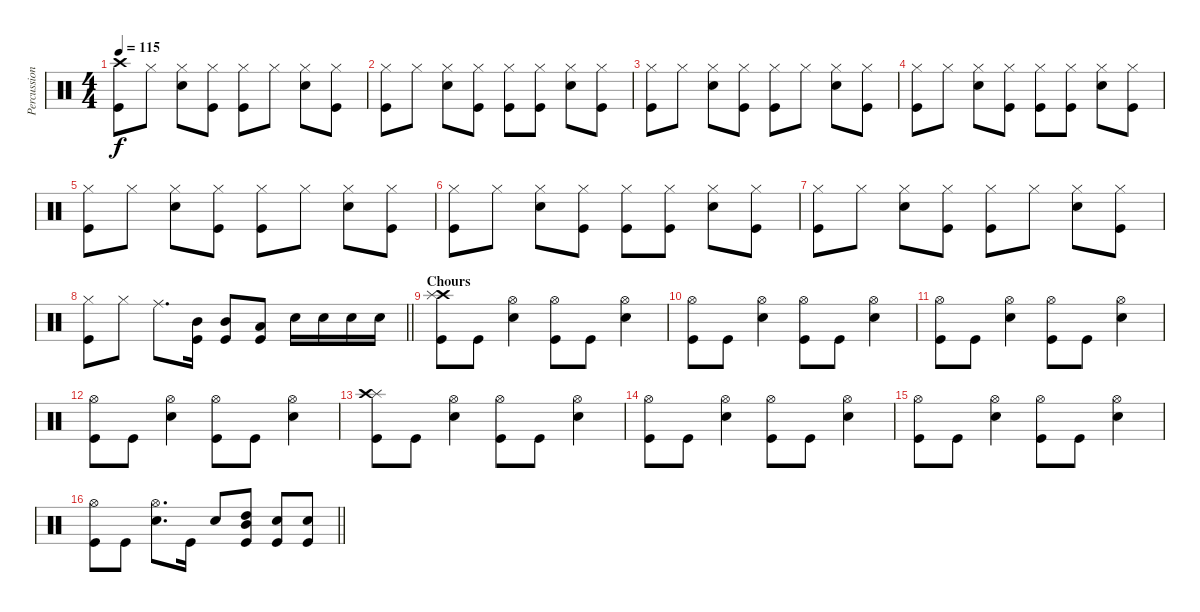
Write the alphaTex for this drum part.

\track ("Percussion" "Percussion") {instrument percussion}
\staff {score}
\articulation defaults
\ts (4 4)
\tempo 115
\clef neutral
\ks c
("Crash high (hit)" "Kick (hit)").8{dy f} "Hi-Hat (closed)".8 ("Hi-Hat (closed)" "Electric Snare (hit)").8 ("Hi-Hat (closed)" "Kick (hit)").8 ("Hi-Hat (closed)" "Kick (hit)").8 "Hi-Hat (closed)".8 ("Hi-Hat (closed)" "Electric Snare (hit)").8 ("Hi-Hat (closed)" "Kick (hit)").8 |
("Hi-Hat (closed)" "Kick (hit)").8 "Hi-Hat (closed)".8 ("Hi-Hat (closed)" "Electric Snare (hit)").8 ("Hi-Hat (closed)" "Kick (hit)").8 ("Hi-Hat (closed)" "Kick (hit)").8 ("Hi-Hat (closed)" "Kick (hit)").8 ("Hi-Hat (closed)" "Electric Snare (hit)").8 ("Hi-Hat (closed)" "Kick (hit)").8 |
("Hi-Hat (closed)" "Kick (hit)").8 "Hi-Hat (closed)".8 ("Hi-Hat (closed)" "Electric Snare (hit)").8 ("Hi-Hat (closed)" "Kick (hit)").8 ("Hi-Hat (closed)" "Kick (hit)").8 "Hi-Hat (closed)".8 ("Hi-Hat (closed)" "Electric Snare (hit)").8 ("Hi-Hat (closed)" "Kick (hit)").8 |
("Hi-Hat (closed)" "Kick (hit)").8 "Hi-Hat (closed)".8 ("Hi-Hat (closed)" "Electric Snare (hit)").8 ("Hi-Hat (closed)" "Kick (hit)").8 ("Hi-Hat (closed)" "Kick (hit)").8 ("Hi-Hat (closed)" "Kick (hit)").8 ("Hi-Hat (closed)" "Electric Snare (hit)").8 ("Hi-Hat (closed)" "Kick (hit)").8 |
("Hi-Hat (closed)" "Kick (hit)").8 "Hi-Hat (closed)".8 ("Hi-Hat (closed)" "Electric Snare (hit)").8 ("Hi-Hat (closed)" "Kick (hit)").8 ("Hi-Hat (closed)" "Kick (hit)").8 "Hi-Hat (closed)".8 ("Hi-Hat (closed)" "Electric Snare (hit)").8 ("Hi-Hat (closed)" "Kick (hit)").8 |
("Hi-Hat (closed)" "Kick (hit)").8 "Hi-Hat (closed)".8 ("Hi-Hat (closed)" "Electric Snare (hit)").8 ("Hi-Hat (closed)" "Kick (hit)").8 ("Hi-Hat (closed)" "Kick (hit)").8 ("Hi-Hat (closed)" "Kick (hit)").8 ("Hi-Hat (closed)" "Electric Snare (hit)").8 ("Hi-Hat (closed)" "Kick (hit)").8 |
("Hi-Hat (closed)" "Kick (hit)").8 "Hi-Hat (closed)".8 ("Hi-Hat (closed)" "Electric Snare (hit)").8 ("Hi-Hat (closed)" "Kick (hit)").8 ("Hi-Hat (closed)" "Kick (hit)").8 "Hi-Hat (closed)".8 ("Hi-Hat (closed)" "Electric Snare (hit)").8 ("Hi-Hat (closed)" "Kick (hit)").8 |
\barLineRight lightlight
("Hi-Hat (closed)" "Kick (hit)").8 "Hi-Hat (closed)".8 "Ride (middle)".8{d} ("Mid Tom (hit)" "Kick (hit)").16 ("Mid Tom (hit)" "Kick (hit)").8 ("Low Tom (hit)" "Kick (hit)").8 "Electric Snare (hit)".16 "Electric Snare (hit)".16 "Electric Snare (hit)".16 "Electric Snare (hit)".16 |
\section ("" "Chours")
("Crash high (hit)" "Splash (hit)" "Kick (hit)").8 "Kick (hit)".8 ("Hi-Hat (open)" "Electric Snare (hit)").4 ("Hi-Hat (open)" "Kick (hit)").8 "Kick (hit)".8 ("Hi-Hat (open)" "Electric Snare (hit)").4 |
("Hi-Hat (open)" "Kick (hit)").8 "Kick (hit)".8 ("Hi-Hat (open)" "Electric Snare (hit)").4 ("Hi-Hat (open)" "Kick (hit)").8 "Kick (hit)".8 ("Hi-Hat (open)" "Electric Snare (hit)").4 |
("Hi-Hat (open)" "Kick (hit)").8 "Kick (hit)".8 ("Hi-Hat (open)" "Electric Snare (hit)").4 ("Hi-Hat (open)" "Kick (hit)").8 "Kick (hit)".8 ("Hi-Hat (open)" "Electric Snare (hit)").4 |
("Hi-Hat (open)" "Kick (hit)").8 "Kick (hit)".8 ("Hi-Hat (open)" "Electric Snare (hit)").4 ("Hi-Hat (open)" "Kick (hit)").8 "Kick (hit)".8 ("Hi-Hat (open)" "Electric Snare (hit)").4 |
("Splash (hit)" "Crash high (hit)" "Kick (hit)").8 "Kick (hit)".8 ("Hi-Hat (open)" "Electric Snare (hit)").4 ("Hi-Hat (open)" "Kick (hit)").8 "Kick (hit)".8 ("Hi-Hat (open)" "Electric Snare (hit)").4 |
("Hi-Hat (open)" "Kick (hit)").8 "Kick (hit)".8 ("Hi-Hat (open)" "Electric Snare (hit)").4 ("Hi-Hat (open)" "Kick (hit)").8 "Kick (hit)".8 ("Hi-Hat (open)" "Electric Snare (hit)").4 |
("Hi-Hat (open)" "Kick (hit)").8 "Kick (hit)".8 ("Hi-Hat (open)" "Electric Snare (hit)").4 ("Hi-Hat (open)" "Kick (hit)").8 "Kick (hit)".8 ("Hi-Hat (open)" "Electric Snare (hit)").4 |
\barLineRight lightlight
("Hi-Hat (open)" "Kick (hit)").8 "Kick (hit)".8 ("Hi-Hat (open)" "Electric Snare (hit)").8{d} "Kick (hit)".16 "Electric Snare (hit)".8 ("High Tom (hit)" "Mid Tom (hit)" "Kick (hit)").8 ("Electric Snare (hit)" "Kick (hit)").8 ("Electric Snare (hit)" "Kick (hit)").8
